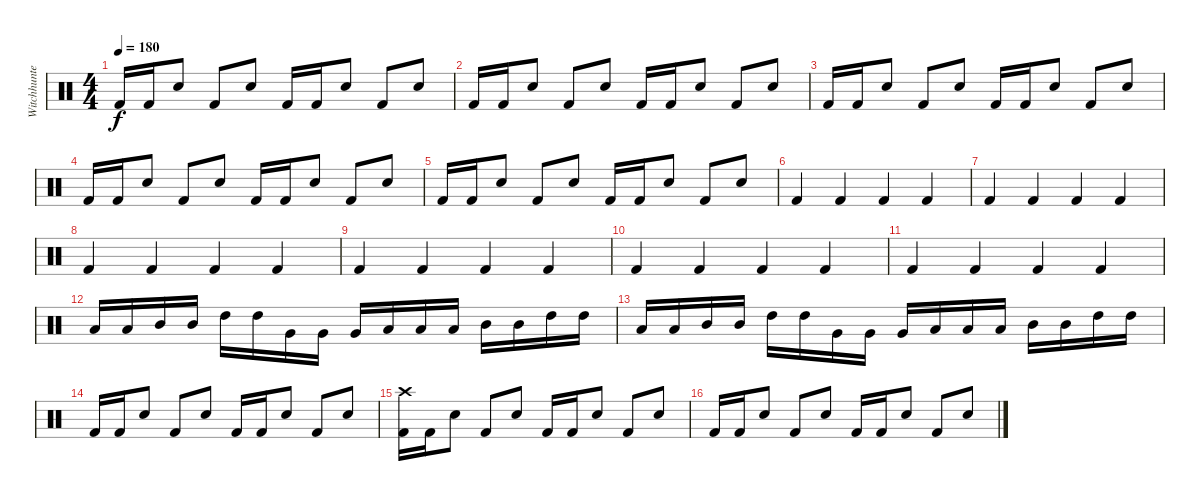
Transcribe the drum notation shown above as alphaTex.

\track ("Witchhunter (Drums)" "Witchhunte") {instrument percussion}
\staff {score}
\articulation defaults
\ts (4 4)
\tempo 180
\clef neutral
\ks c "Kick (hit) 2".16{dy f} "Kick (hit) 2".16 "Snare (hit) 2".8 "Kick (hit) 2".8 "Snare (hit) 2".8 "Kick (hit) 2".16 "Kick (hit) 2".16 "Snare (hit) 2".8 "Kick (hit) 2".8 "Snare (hit) 2".8
|
"Kick (hit) 2".16 "Kick (hit) 2".16 "Snare (hit) 2".8 "Kick (hit) 2".8 "Snare (hit) 2".8 "Kick (hit) 2".16 "Kick (hit) 2".16 "Snare (hit) 2".8 "Kick (hit) 2".8 "Snare (hit) 2".8 |
"Kick (hit) 2".16 "Kick (hit) 2".16 "Snare (hit) 2".8 "Kick (hit) 2".8 "Snare (hit) 2".8 "Kick (hit) 2".16 "Kick (hit) 2".16 "Snare (hit) 2".8 "Kick (hit) 2".8 "Snare (hit) 2".8 |
"Kick (hit) 2".16 "Kick (hit) 2".16 "Snare (hit) 2".8 "Kick (hit) 2".8 "Snare (hit) 2".8 "Kick (hit) 2".16 "Kick (hit) 2".16 "Snare (hit) 2".8 "Kick (hit) 2".8 "Snare (hit) 2".8 |
"Kick (hit) 2".16 "Kick (hit) 2".16 "Snare (hit) 2".8 "Kick (hit) 2".8 "Snare (hit) 2".8 "Kick (hit) 2".16 "Kick (hit) 2".16 "Snare (hit) 2".8 "Kick (hit) 2".8 "Snare (hit) 2".8 |
"Kick (hit) 2".4 "Kick (hit) 2".4 "Kick (hit) 2".4 "Kick (hit) 2".4 |
"Kick (hit) 2".4 "Kick (hit) 2".4 "Kick (hit) 2".4 "Kick (hit) 2".4 |
"Kick (hit) 2".4 "Kick (hit) 2".4 "Kick (hit) 2".4 "Kick (hit) 2".4 |
"Kick (hit) 2".4 "Kick (hit) 2".4 "Kick (hit) 2".4 "Kick (hit) 2".4 |
"Kick (hit) 2".4 "Kick (hit) 2".4 "Kick (hit) 2".4 "Kick (hit) 2".4 |
"Kick (hit) 2".4 "Kick (hit) 2".4 "Kick (hit) 2".4 "Kick (hit) 2".4 |
"Low Tom (hit)".16 "Low Tom (hit)".16 "Mid Tom (hit)".16 "Mid Tom (hit)".16 "High Tom (hit)".16 "High Tom (hit)".16 "Very Low Tom (hit)".16 "Very Low Tom (hit)".16 "Very Low Tom (hit)".16 "Low Tom (hit)".16 "Low Tom (hit)".16 "Low Tom (hit)".16 "Mid Tom (hit)".16 "Mid Tom (hit)".16 "High Tom (hit)".16 "High Tom (hit)".16 |
"Low Tom (hit)".16 "Low Tom (hit)".16 "Mid Tom (hit)".16 "Mid Tom (hit)".16 "High Tom (hit)".16 "High Tom (hit)".16 "Very Low Tom (hit)".16 "Very Low Tom (hit)".16 "Very Low Tom (hit)".16 "Low Tom (hit)".16 "Low Tom (hit)".16 "Low Tom (hit)".16 "Mid Tom (hit)".16 "Mid Tom (hit)".16 "High Tom (hit)".16 "High Tom (hit)".16 |
"Kick (hit) 2".16 "Kick (hit) 2".16 "Snare (hit) 2".8 "Kick (hit) 2".8 "Snare (hit) 2".8 "Kick (hit) 2".16 "Kick (hit) 2".16 "Snare (hit) 2".8 "Kick (hit) 2".8 "Snare (hit) 2".8 |
("Crash high (hit)" "Kick (hit) 2").16 "Kick (hit) 2".16 "Snare (hit) 2".8 "Kick (hit) 2".8 "Snare (hit) 2".8 "Kick (hit) 2".16 "Kick (hit) 2".16 "Snare (hit) 2".8 "Kick (hit) 2".8 "Snare (hit) 2".8 |
"Kick (hit) 2".16 "Kick (hit) 2".16 "Snare (hit) 2".8 "Kick (hit) 2".8 "Snare (hit) 2".8 "Kick (hit) 2".16 "Kick (hit) 2".16 "Snare (hit) 2".8 "Kick (hit) 2".8 "Snare (hit) 2".8
